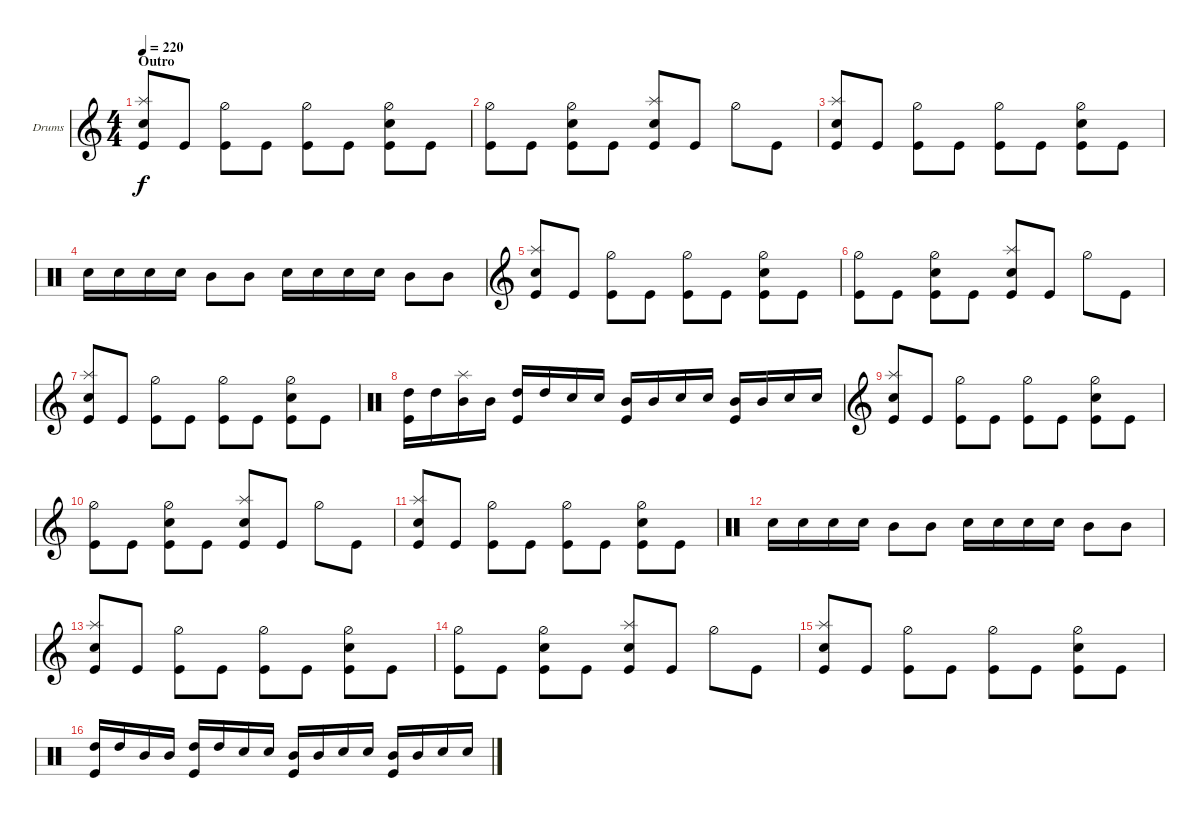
\defaultSystemsLayout 4
\bracketExtendMode groupsimilarinstruments
\firstSystemTrackNameOrientation horizontal
\otherSystemsTrackNameOrientation horizontal
\track ("Drumkit" "Drums") {instrument percussion}
\staff {score}
\articulation defaults
\ts (4 4)
\section ("" "Outro")
\tempo 220
\clef g2
\ks c
("Snare (hit) 2" "Splash (hit)" "Kick (hit)").8{dy f} "Kick (hit)".8 ("Hi-Hat (half)" "Kick (hit)").8 "Kick (hit)".8 ("Hi-Hat (half)" "Kick (hit)").8 "Kick (hit)".8 ("Snare (hit) 2" "Hi-Hat (half)" "Kick (hit)").8 "Kick (hit)".8 |
("Hi-Hat (half)" "Kick (hit)").8 "Kick (hit)".8 ("Snare (hit) 2" "Hi-Hat (half)" "Kick (hit)").8 "Kick (hit)".8 ("Snare (hit) 2" "Splash (hit)" "Kick (hit)").8 "Kick (hit)".8 "Hi-Hat (half)".8 "Kick (hit)".8 |
("Snare (hit) 2" "Splash (hit)" "Kick (hit)").8 "Kick (hit)".8 ("Hi-Hat (half)" "Kick (hit)").8 "Kick (hit)".8 ("Hi-Hat (half)" "Kick (hit)").8 "Kick (hit)".8 ("Snare (hit) 2" "Hi-Hat (half)" "Kick (hit)").8 "Kick (hit)".8 |
\clef neutral "Snare (hit) 2".16 "Snare (hit) 2".16 "Snare (hit) 2".16 "Snare (hit) 2".16 "Mid Tom (hit)".8 "Mid Tom (hit)".8 "Snare (hit) 2".16 "Snare (hit) 2".16 "Snare (hit) 2".16 "Snare (hit) 2".16 "Mid Tom (hit)".8 "Mid Tom (hit)".8
|
\clef g2
("Snare (hit) 2" "Splash (hit)" "Kick (hit)").8 "Kick (hit)".8 ("Hi-Hat (half)" "Kick (hit)").8 "Kick (hit)".8 ("Hi-Hat (half)" "Kick (hit)").8 "Kick (hit)".8 ("Snare (hit) 2" "Hi-Hat (half)" "Kick (hit)").8 "Kick (hit)".8 |
("Hi-Hat (half)" "Kick (hit)").8 "Kick (hit)".8 ("Snare (hit) 2" "Hi-Hat (half)" "Kick (hit)").8 "Kick (hit)".8 ("Snare (hit) 2" "Splash (hit)" "Kick (hit)").8 "Kick (hit)".8 "Hi-Hat (half)".8 "Kick (hit)".8 |
("Snare (hit) 2" "Splash (hit)" "Kick (hit)").8 "Kick (hit)".8 ("Hi-Hat (half)" "Kick (hit)").8 "Kick (hit)".8 ("Hi-Hat (half)" "Kick (hit)").8 "Kick (hit)".8 ("Snare (hit) 2" "Hi-Hat (half)" "Kick (hit)").8 "Kick (hit)".8 |
\clef neutral
("High Tom (hit)" "Kick (hit)").16 "High Tom (hit)".16 ("Mid Tom (hit)" "Splash (hit)").16 "Mid Tom (hit)".16 ("High Tom (hit)" "Kick (hit)").16 "High Tom (hit)".16 "Snare (hit) 2".16 "Snare (hit) 2".16 ("Mid Tom (hit)" "Kick (hit)").16 "Mid Tom (hit)".16 "Snare (hit) 2".16 "Snare (hit) 2".16 ("Mid Tom (hit)" "Kick (hit)").16 "Mid Tom (hit)".16 "Snare (hit) 2".16 "Snare (hit) 2".16 |
\clef g2
("Snare (hit) 2" "Splash (hit)" "Kick (hit)").8 "Kick (hit)".8 ("Hi-Hat (half)" "Kick (hit)").8 "Kick (hit)".8 ("Hi-Hat (half)" "Kick (hit)").8 "Kick (hit)".8 ("Snare (hit) 2" "Hi-Hat (half)" "Kick (hit)").8 "Kick (hit)".8 |
("Hi-Hat (half)" "Kick (hit)").8 "Kick (hit)".8 ("Snare (hit) 2" "Hi-Hat (half)" "Kick (hit)").8 "Kick (hit)".8 ("Snare (hit) 2" "Splash (hit)" "Kick (hit)").8 "Kick (hit)".8 "Hi-Hat (half)".8 "Kick (hit)".8 |
("Snare (hit) 2" "Splash (hit)" "Kick (hit)").8 "Kick (hit)".8 ("Hi-Hat (half)" "Kick (hit)").8 "Kick (hit)".8 ("Hi-Hat (half)" "Kick (hit)").8 "Kick (hit)".8 ("Snare (hit) 2" "Hi-Hat (half)" "Kick (hit)").8 "Kick (hit)".8 |
\clef neutral "Snare (hit) 2".16 "Snare (hit) 2".16 "Snare (hit) 2".16 "Snare (hit) 2".16 "Mid Tom (hit)".8 "Mid Tom (hit)".8 "Snare (hit) 2".16 "Snare (hit) 2".16 "Snare (hit) 2".16 "Snare (hit) 2".16 "Mid Tom (hit)".8 "Mid Tom (hit)".8
|
\clef g2
("Snare (hit) 2" "Splash (hit)" "Kick (hit)").8 "Kick (hit)".8 ("Hi-Hat (half)" "Kick (hit)").8 "Kick (hit)".8 ("Hi-Hat (half)" "Kick (hit)").8 "Kick (hit)".8 ("Snare (hit) 2" "Hi-Hat (half)" "Kick (hit)").8 "Kick (hit)".8 |
("Hi-Hat (half)" "Kick (hit)").8 "Kick (hit)".8 ("Snare (hit) 2" "Hi-Hat (half)" "Kick (hit)").8 "Kick (hit)".8 ("Snare (hit) 2" "Splash (hit)" "Kick (hit)").8 "Kick (hit)".8 "Hi-Hat (half)".8 "Kick (hit)".8 |
("Snare (hit) 2" "Splash (hit)" "Kick (hit)").8 "Kick (hit)".8 ("Hi-Hat (half)" "Kick (hit)").8 "Kick (hit)".8 ("Hi-Hat (half)" "Kick (hit)").8 "Kick (hit)".8 ("Snare (hit) 2" "Hi-Hat (half)" "Kick (hit)").8 "Kick (hit)".8 |
\clef neutral
("High Tom (hit)" "Kick (hit)").16 "High Tom (hit)".16 "Mid Tom (hit)".16 "Mid Tom (hit)".16 ("High Tom (hit)" "Kick (hit)").16 "High Tom (hit)".16 "Snare (hit) 2".16 "Snare (hit) 2".16 ("Mid Tom (hit)" "Kick (hit)").16 "Mid Tom (hit)".16 "Snare (hit) 2".16 "Snare (hit) 2".16 ("Mid Tom (hit)" "Kick (hit)").16 "Mid Tom (hit)".16 "Snare (hit) 2".16 "Snare (hit) 2".16
